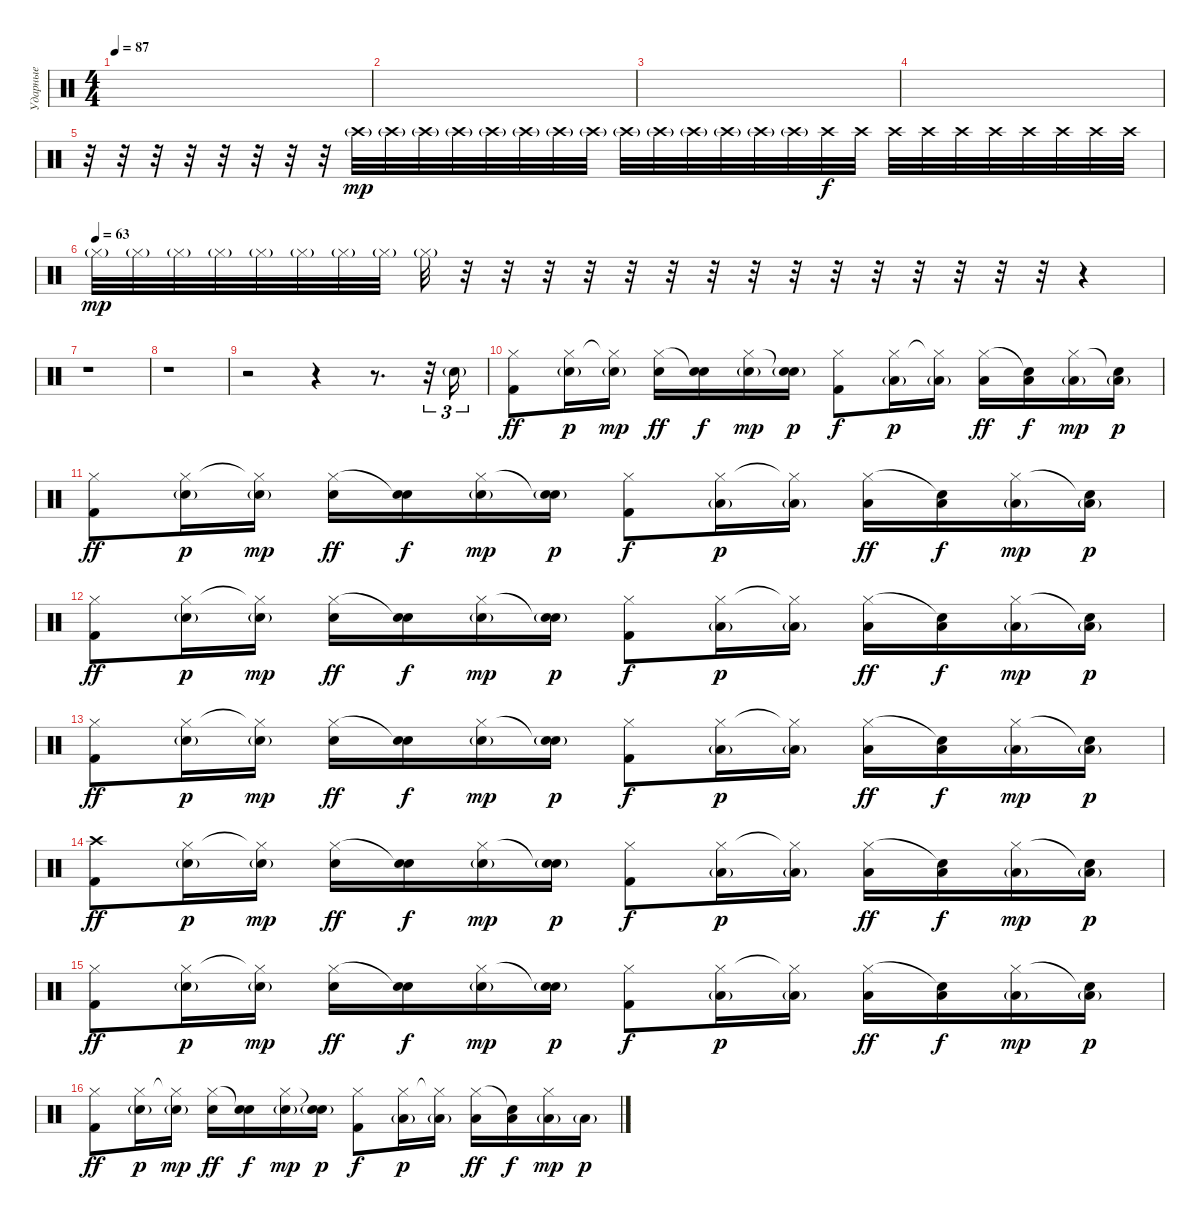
\track ("Ударные" "Ударные") {instrument percussion}
\staff {score}
\articulation defaults
\ts (4 4)
\tempo 87
\clef neutral
\ks c
|
|
|
|
r.32 r.32 r.32 r.32 r.32 r.32 r.32 r.32 "Crash high (hit)"{g}.32{dy mp} "Crash high (hit)"{g}.32 "Crash high (hit)"{g}.32 "Crash high (hit)"{g}.32 "Crash high (hit)"{g}.32 "Crash high (hit)"{g}.32 "Crash high (hit)"{g}.32 "Crash high (hit)"{g}.32 "Crash high (hit)"{g}.32 "Crash high (hit)"{g}.32 "Crash high (hit)"{g}.32 "Crash high (hit)"{g}.32 "Crash high (hit)"{g}.32 "Crash high (hit)"{g}.32 "Crash high (hit)".32{dy f} "Crash high (hit)".32 "Crash high (hit)".32 "Crash high (hit)".32 "Crash high (hit)".32 "Crash high (hit)".32 "Crash high (hit)".32 "Crash high (hit)".32 "Crash high (hit)".32 "Crash high (hit)".32 |
\tempo (63)
"Hi-Hat (closed)"{g}.32{dy mp} "Hi-Hat (closed)"{g}.32 "Hi-Hat (closed)"{g}.32 "Hi-Hat (closed)"{g}.32 "Hi-Hat (closed)"{g}.32 "Hi-Hat (closed)"{g}.32 "Hi-Hat (closed)"{g}.32 "Hi-Hat (closed)"{g}.32 "Hi-Hat (closed)"{g}.32 r.32 r.32 r.32 r.32 r.32 r.32 r.32 r.32 r.32 r.32 r.32 r.32 r.32 r.32 r.32 r.4 |
r.1 |
r.1 |
r.2 r.4 r.8{d} r.32{tu (3 2)} "Snare (hit) 2"{g}.16{tu (3 2)} |
("Hi-Hat (closed)" "Kick (hit) 2").8{dy ff} ("Hi-Hat (closed)" "Snare (hit) 2"{g}).16{dy p} ("Hi-Hat (closed)"{t} "Snare (hit) 2"{g}).16{dy mp} ("Hi-Hat (closed)" "Snare (hit) 2").16{dy ff} ("Snare (hit)"{t} "Snare (hit) 2").16{dy f} ("Hi-Hat (closed)" "Snare (hit) 2"{g}).16{dy mp} ("Snare (hit)"{t} "Snare (hit) 2"{g}).16{dy p} ("Hi-Hat (closed)" "Kick (hit) 2").8{dy f} ("Hi-Hat (closed)" "Low Floor Tom (hit)"{g}).16{dy p} ("Hi-Hat (closed)"{t} "Low Floor Tom (hit)"{g}).16 ("Hi-Hat (closed)" "Low Floor Tom (hit)").16{dy ff} ("Snare (hit)"{t} "Low Floor Tom (hit)").16{dy f} ("Hi-Hat (closed)" "Low Floor Tom (hit)"{g}).16{dy mp} ("Snare (hit)"{t} "Low Floor Tom (hit)"{g}).16{dy p} |
("Hi-Hat (closed)" "Kick (hit) 2").8{dy ff} ("Hi-Hat (closed)" "Snare (hit) 2"{g}).16{dy p} ("Hi-Hat (closed)"{t} "Snare (hit) 2"{g}).16{dy mp} ("Hi-Hat (closed)" "Snare (hit) 2").16{dy ff} ("Snare (hit)"{t} "Snare (hit) 2").16{dy f} ("Hi-Hat (closed)" "Snare (hit) 2"{g}).16{dy mp} ("Snare (hit)"{t} "Snare (hit) 2"{g}).16{dy p} ("Hi-Hat (closed)" "Kick (hit) 2").8{dy f} ("Hi-Hat (closed)" "Low Floor Tom (hit)"{g}).16{dy p} ("Hi-Hat (closed)"{t} "Low Floor Tom (hit)"{g}).16 ("Hi-Hat (closed)" "Low Floor Tom (hit)").16{dy ff} ("Snare (hit)"{t} "Low Floor Tom (hit)").16{dy f} ("Hi-Hat (closed)" "Low Floor Tom (hit)"{g}).16{dy mp} ("Snare (hit)"{t} "Low Floor Tom (hit)"{g}).16{dy p} |
("Hi-Hat (closed)" "Kick (hit) 2").8{dy ff} ("Hi-Hat (closed)" "Snare (hit) 2"{g}).16{dy p} ("Hi-Hat (closed)"{t} "Snare (hit) 2"{g}).16{dy mp} ("Hi-Hat (closed)" "Snare (hit) 2").16{dy ff} ("Snare (hit)"{t} "Snare (hit) 2").16{dy f} ("Hi-Hat (closed)" "Snare (hit) 2"{g}).16{dy mp} ("Snare (hit)"{t} "Snare (hit) 2"{g}).16{dy p} ("Hi-Hat (closed)" "Kick (hit) 2").8{dy f} ("Hi-Hat (closed)" "Low Floor Tom (hit)"{g}).16{dy p} ("Hi-Hat (closed)"{t} "Low Floor Tom (hit)"{g}).16 ("Hi-Hat (closed)" "Low Floor Tom (hit)").16{dy ff} ("Snare (hit)"{t} "Low Floor Tom (hit)").16{dy f} ("Hi-Hat (closed)" "Low Floor Tom (hit)"{g}).16{dy mp} ("Snare (hit)"{t} "Low Floor Tom (hit)"{g}).16{dy p} |
("Hi-Hat (closed)" "Kick (hit) 2").8{dy ff} ("Hi-Hat (closed)" "Snare (hit) 2"{g}).16{dy p} ("Hi-Hat (closed)"{t} "Snare (hit) 2"{g}).16{dy mp} ("Hi-Hat (closed)" "Snare (hit) 2").16{dy ff} ("Snare (hit)"{t} "Snare (hit) 2").16{dy f} ("Hi-Hat (closed)" "Snare (hit) 2"{g}).16{dy mp} ("Snare (hit)"{t} "Snare (hit) 2"{g}).16{dy p} ("Hi-Hat (closed)" "Kick (hit) 2").8{dy f} ("Hi-Hat (closed)" "Low Floor Tom (hit)"{g}).16{dy p} ("Hi-Hat (closed)"{t} "Low Floor Tom (hit)"{g}).16 ("Hi-Hat (closed)" "Low Floor Tom (hit)").16{dy ff} ("Snare (hit)"{t} "Low Floor Tom (hit)").16{dy f} ("Hi-Hat (closed)" "Low Floor Tom (hit)"{g}).16{dy mp} ("Snare (hit)"{t} "Low Floor Tom (hit)"{g}).16{dy p} |
("Crash high (hit)" "Kick (hit) 2").8{dy ff} ("Hi-Hat (closed)" "Snare (hit) 2"{g}).16{dy p} ("Hi-Hat (closed)"{t} "Snare (hit) 2"{g}).16{dy mp} ("Hi-Hat (closed)" "Snare (hit) 2").16{dy ff} ("Snare (hit)"{t} "Snare (hit) 2").16{dy f} ("Hi-Hat (closed)" "Snare (hit) 2"{g}).16{dy mp} ("Snare (hit)"{t} "Snare (hit) 2"{g}).16{dy p} ("Hi-Hat (closed)" "Kick (hit) 2").8{dy f} ("Hi-Hat (closed)" "Low Floor Tom (hit)"{g}).16{dy p} ("Hi-Hat (closed)"{t} "Low Floor Tom (hit)"{g}).16 ("Hi-Hat (closed)" "Low Floor Tom (hit)").16{dy ff} ("Snare (hit)"{t} "Low Floor Tom (hit)").16{dy f} ("Hi-Hat (closed)" "Low Floor Tom (hit)"{g}).16{dy mp} ("Snare (hit)"{t} "Low Floor Tom (hit)"{g}).16{dy p} |
("Hi-Hat (closed)" "Kick (hit) 2").8{dy ff} ("Hi-Hat (closed)" "Snare (hit) 2"{g}).16{dy p} ("Hi-Hat (closed)"{t} "Snare (hit) 2"{g}).16{dy mp} ("Hi-Hat (closed)" "Snare (hit) 2").16{dy ff} ("Snare (hit)"{t} "Snare (hit) 2").16{dy f} ("Hi-Hat (closed)" "Snare (hit) 2"{g}).16{dy mp} ("Snare (hit)"{t} "Snare (hit) 2"{g}).16{dy p} ("Hi-Hat (closed)" "Kick (hit) 2").8{dy f} ("Hi-Hat (closed)" "Low Floor Tom (hit)"{g}).16{dy p} ("Hi-Hat (closed)"{t} "Low Floor Tom (hit)"{g}).16 ("Hi-Hat (closed)" "Low Floor Tom (hit)").16{dy ff} ("Snare (hit)"{t} "Low Floor Tom (hit)").16{dy f} ("Hi-Hat (closed)" "Low Floor Tom (hit)"{g}).16{dy mp} ("Snare (hit)"{t} "Low Floor Tom (hit)"{g}).16{dy p} |
("Hi-Hat (closed)" "Kick (hit) 2").8{dy ff} ("Hi-Hat (closed)" "Snare (hit) 2"{g}).16{dy p} ("Hi-Hat (closed)"{t} "Snare (hit) 2"{g}).16{dy mp} ("Hi-Hat (closed)" "Snare (hit) 2").16{dy ff} ("Snare (hit)"{t} "Snare (hit) 2").16{dy f} ("Hi-Hat (closed)" "Snare (hit) 2"{g}).16{dy mp} ("Snare (hit)"{t} "Snare (hit) 2"{g}).16{dy p} ("Hi-Hat (closed)" "Kick (hit) 2").8{dy f} ("Hi-Hat (closed)" "Low Floor Tom (hit)"{g}).16{dy p} ("Hi-Hat (closed)"{t} "Low Floor Tom (hit)"{g}).16 ("Hi-Hat (closed)" "Low Floor Tom (hit)").16{dy ff} ("Snare (hit)"{t} "Low Floor Tom (hit)").16{dy f} ("Hi-Hat (closed)" "Low Floor Tom (hit)"{g}).16{dy mp} "Low Floor Tom (hit)"{g}.16{dy p}
